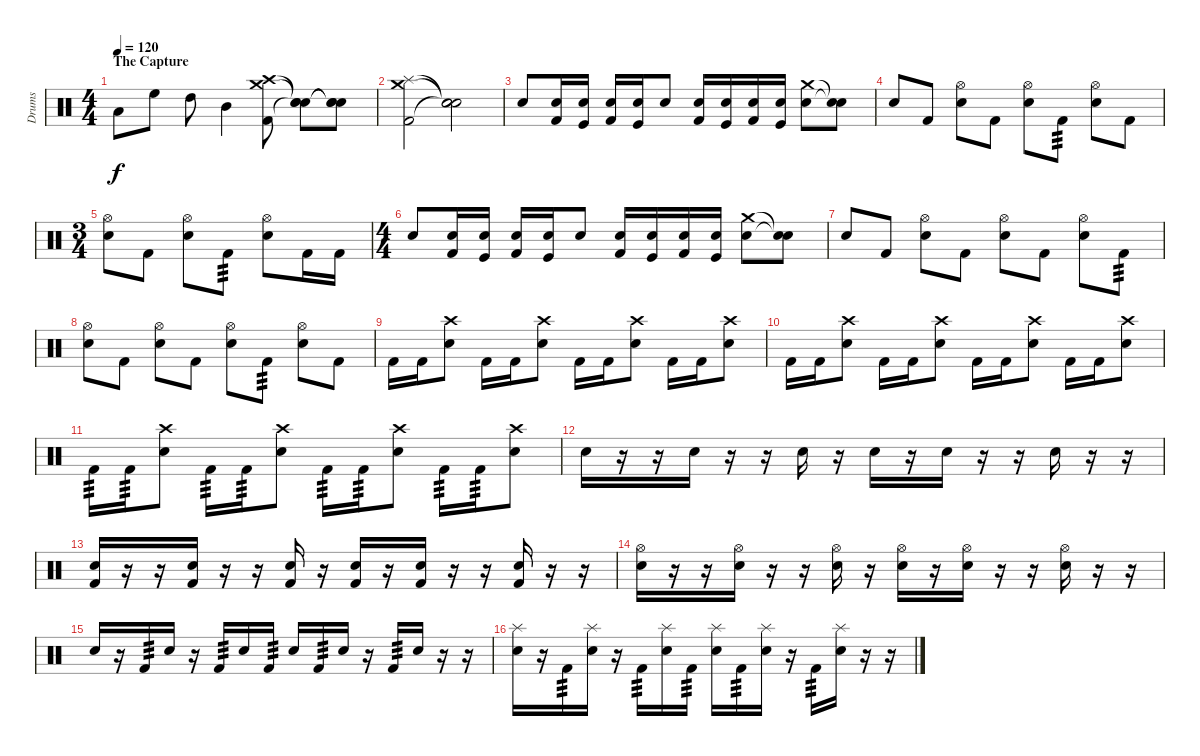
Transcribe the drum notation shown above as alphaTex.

\track ("Drums" "Drums") {instrument percussion}
\staff {score}
\articulation defaults
\ts (4 4)
\section ("" "The Capture")
\tempo 120
\clef neutral
\ks c "Low Floor Tom (hit)".8{dy f volume 16} "High Floor Tom (hit)".8 "High Tom (hit)".8 "Mid Tom (hit)".4
("Crash medium (hit)" "Crash high (hit)" "Kick (hit) 2").8 ("Snare (hit)"{t} "Snare (hit)"{t} "Snare (hit)"{t}).8 ("Snare (hit)"{t} "Snare (hit)"{t} "Snare (hit)"{t}).8 |
("Crash medium (hit)" "Splash (hit)" "Kick (hit) 2").2 ("Snare (hit)"{t} "Snare (hit)"{t} "Snare (hit)"{t}).2 |
"Snare (hit) 2".8 ("Snare (hit) 2" "Kick (hit) 2").16 ("Snare (hit) 2" "Kick (hit)").16 ("Snare (hit) 2" "Kick (hit) 2").16 ("Snare (hit) 2" "Kick (hit)").16 "Snare (hit) 2".8 ("Snare (hit) 2" "Kick (hit) 2").16 ("Snare (hit) 2" "Kick (hit)").16 ("Snare (hit) 2" "Kick (hit) 2").16 ("Snare (hit) 2" "Kick (hit)").16 ("Crash medium (hit)" "Snare (hit) 2").8 ("Snare (hit)"{t} "Snare (hit)"{t}).8 |
"Snare (hit) 2".8 "Kick (hit) 2".8 ("Hi-Hat (open)" "Snare (hit) 2").8 "Kick (hit) 2".8 ("Hi-Hat (open)" "Snare (hit) 2").8 "Kick (hit) 2".8{tp 3} ("Hi-Hat (open)" "Snare (hit) 2").8 "Kick (hit) 2".8 |
\ts (3 4)
("Hi-Hat (open)" "Snare (hit) 2").8 "Kick (hit) 2".8 ("Hi-Hat (open)" "Snare (hit) 2").8 "Kick (hit) 2".8{tp 3} ("Hi-Hat (open)" "Snare (hit) 2").8 "Kick (hit) 2".16 "Kick (hit) 2".16 |
\ts (4 4)
"Snare (hit) 2".8 ("Snare (hit) 2" "Kick (hit) 2").16 ("Snare (hit) 2" "Kick (hit)").16 ("Snare (hit) 2" "Kick (hit) 2").16 ("Snare (hit) 2" "Kick (hit)").16 "Snare (hit) 2".8 ("Snare (hit) 2" "Kick (hit) 2").16 ("Snare (hit) 2" "Kick (hit)").16 ("Snare (hit) 2" "Kick (hit) 2").16 ("Snare (hit) 2" "Kick (hit)").16 ("Crash medium (hit)" "Snare (hit) 2").8 ("Snare (hit)"{t} "Snare (hit)"{t}).8 |
"Snare (hit) 2".8 "Kick (hit) 2".8 ("Hi-Hat (open)" "Snare (hit) 2").8 "Kick (hit) 2".8 ("Hi-Hat (open)" "Snare (hit) 2").8 "Kick (hit) 2".8 ("Hi-Hat (open)" "Snare (hit) 2").8 "Kick (hit) 2".8{tp 3} |
("Hi-Hat (open)" "Snare (hit) 2").8 "Kick (hit) 2".8 ("Hi-Hat (open)" "Snare (hit) 2").8 "Kick (hit) 2".8 ("Hi-Hat (open)" "Snare (hit) 2").8 "Kick (hit) 2".8{tp 3} ("Hi-Hat (open)" "Snare (hit) 2").8 "Kick (hit) 2".8 |
"Kick (hit) 2".16 "Kick (hit) 2".16 ("Crash high (hit)" "Snare (hit) 2").8 "Kick (hit) 2".16 "Kick (hit) 2".16 ("Crash high (hit)" "Snare (hit) 2").8 "Kick (hit) 2".16 "Kick (hit) 2".16 ("Crash high (hit)" "Snare (hit) 2").8 "Kick (hit) 2".16 "Kick (hit) 2".16 ("Crash high (hit)" "Snare (hit) 2").8 |
"Kick (hit) 2".16 "Kick (hit) 2".16 ("Crash high (hit)" "Snare (hit) 2").8 "Kick (hit) 2".16 "Kick (hit) 2".16 ("Crash high (hit)" "Snare (hit) 2").8 "Kick (hit) 2".16 "Kick (hit) 2".16 ("Crash high (hit)" "Snare (hit) 2").8 "Kick (hit) 2".16 "Kick (hit) 2".16 ("Crash high (hit)" "Snare (hit) 2").8 |
"Kick (hit) 2".16{tp 3} "Kick (hit) 2".16{tp 3} ("Crash high (hit)" "Snare (hit) 2").8 "Kick (hit) 2".16{tp 3} "Kick (hit) 2".16{tp 3} ("Crash high (hit)" "Snare (hit) 2").8 "Kick (hit) 2".16{tp 3} "Kick (hit) 2".16{tp 3} ("Crash high (hit)" "Snare (hit) 2").8 "Kick (hit) 2".16{tp 3} "Kick (hit) 2".16{tp 3} ("Crash high (hit)" "Snare (hit) 2").8 |
"Snare (hit) 2".16 r.16 r.16 "Snare (hit) 2".16 r.16 r.16 "Snare (hit) 2".16 r.16 "Snare (hit) 2".16 r.16 "Snare (hit) 2".16 r.16 r.16 "Snare (hit) 2".16 r.16 r.16 |
("Snare (hit) 2" "Kick (hit) 2").16 r.16 r.16 ("Snare (hit) 2" "Kick (hit) 2").16 r.16 r.16 ("Snare (hit) 2" "Kick (hit) 2").16 r.16 ("Snare (hit) 2" "Kick (hit) 2").16 r.16 ("Snare (hit) 2" "Kick (hit) 2").16 r.16 r.16 ("Snare (hit) 2" "Kick (hit) 2").16 r.16 r.16 |
("Hi-Hat (open)" "Snare (hit) 2").16 r.16 r.16 ("Hi-Hat (open)" "Snare (hit) 2").16 r.16 r.16 ("Hi-Hat (open)" "Snare (hit) 2").16 r.16 ("Hi-Hat (open)" "Snare (hit) 2").16 r.16 ("Hi-Hat (open)" "Snare (hit) 2").16 r.16 r.16 ("Hi-Hat (open)" "Snare (hit) 2").16 r.16 r.16 |
"Snare (hit) 2".16 r.16 "Kick (hit) 2".16{tp 3} "Snare (hit) 2".16 r.16 "Kick (hit) 2".16{tp 3} "Snare (hit) 2".16 "Kick (hit) 2".16{tp 3} "Snare (hit) 2".16 "Kick (hit) 2".16{tp 3} "Snare (hit) 2".16 r.16 "Kick (hit) 2".16{tp 3} "Snare (hit) 2".16 r.16 r.16 |
("Splash (hit)" "Snare (hit) 2").16 r.16 "Kick (hit) 2".16{tp 3} ("Splash (hit)" "Snare (hit) 2").16 r.16 "Kick (hit) 2".16{tp 3} ("Splash (hit)" "Snare (hit) 2").16 "Kick (hit) 2".16{tp 3} ("Splash (hit)" "Snare (hit) 2").16 "Kick (hit) 2".16{tp 3} ("Splash (hit)" "Snare (hit) 2").16 r.16 "Kick (hit) 2".16{tp 3} ("Splash (hit)" "Snare (hit) 2").16 r.16 r.16
